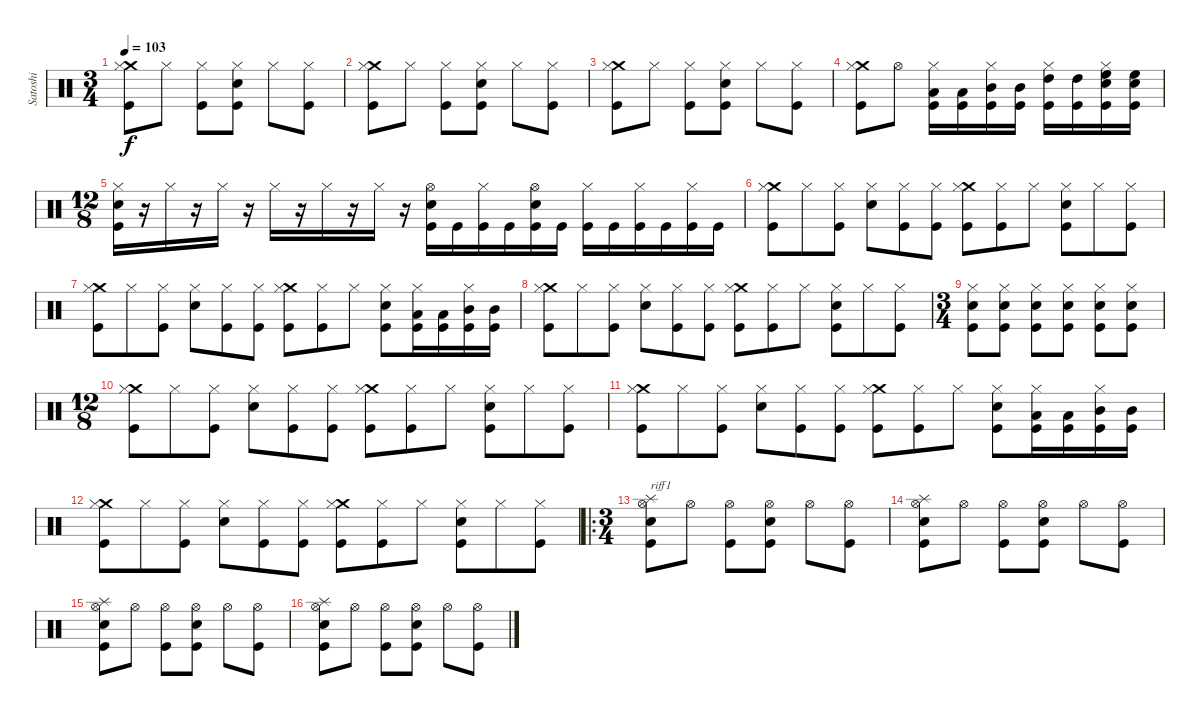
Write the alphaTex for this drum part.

\track ("Satoshi" "Satoshi") {instrument percussion}
\staff {score}
\articulation defaults
\ts (3 4)
\tempo 103
\clef neutral
\ks c
("Crash medium (hit)" "Hi-Hat (closed)" "Kick (hit)").8{dy f} "Hi-Hat (closed)".8 ("Hi-Hat (closed)" "Kick (hit)").8 ("Hi-Hat (closed)" "Electric Snare (hit)" "Kick (hit)").8 "Hi-Hat (closed)".8 ("Hi-Hat (closed)" "Kick (hit)").8 |
("Crash medium (hit)" "Hi-Hat (closed)" "Kick (hit)").8 "Hi-Hat (closed)".8 ("Hi-Hat (closed)" "Kick (hit)").8 ("Hi-Hat (closed)" "Electric Snare (hit)" "Kick (hit)").8 "Hi-Hat (closed)".8 ("Hi-Hat (closed)" "Kick (hit)").8 |
("Crash medium (hit)" "Hi-Hat (closed)" "Kick (hit)").8 "Hi-Hat (closed)".8 ("Hi-Hat (closed)" "Kick (hit)").8 ("Hi-Hat (closed)" "Electric Snare (hit)" "Kick (hit)").8 "Hi-Hat (closed)".8 ("Hi-Hat (closed)" "Kick (hit)").8 |
("Crash medium (hit)" "Hi-Hat (closed)" "Kick (hit)").8 "Hi-Hat (open)".8 ("Low Tom (hit)" "Hi-Hat (closed)" "Kick (hit)").16 ("Low Tom (hit)" "Kick (hit)").16 ("Mid Tom (hit)" "Hi-Hat (closed)" "Kick (hit)").16 ("Mid Tom (hit)" "Kick (hit)").16 ("High Tom (hit)" "Hi-Hat (closed)" "Kick (hit)").16 ("High Tom (hit)" "Kick (hit)").16 ("High Floor Tom (hit)" "Hi-Hat (closed)" "Electric Snare (hit)" "Kick (hit)").16 ("High Floor Tom (hit)" "Electric Snare (hit)" "Kick (hit)").16 |
\ts (12 8)
("Hi-Hat (closed)" "Electric Snare (hit)" "Kick (hit)").16 r.16 "Hi-Hat (closed)".16 r.16 "Hi-Hat (closed)".16 r.16 "Hi-Hat (closed)".16 r.16 "Hi-Hat (closed)".16 r.16 "Hi-Hat (closed)".16 r.16 ("Hi-Hat (open)" "Electric Snare (hit)" "Kick (hit)").16 "Kick (hit)".16 ("Hi-Hat (closed)" "Kick (hit)").16 "Kick (hit)".16 ("Hi-Hat (open)" "Electric Snare (hit)" "Kick (hit)").16 "Kick (hit)".16 ("Hi-Hat (closed)" "Kick (hit)").16 "Kick (hit)".16 ("Hi-Hat (closed)" "Kick (hit)").16 "Kick (hit)".16 ("Hi-Hat (closed)" "Kick (hit)").16 "Kick (hit)".16 |
("Crash medium (hit)" "Hi-Hat (closed)" "Kick (hit)").8 "Hi-Hat (closed)".8 ("Hi-Hat (closed)" "Kick (hit)").8 ("Hi-Hat (closed)" "Electric Snare (hit)").8 ("Hi-Hat (closed)" "Kick (hit)").8 ("Hi-Hat (closed)" "Kick (hit)").8 ("Crash medium (hit)" "Hi-Hat (closed)" "Kick (hit)").8 ("Hi-Hat (closed)" "Kick (hit)").8 "Hi-Hat (closed)".8 ("Hi-Hat (closed)" "Electric Snare (hit)" "Kick (hit)").8 "Hi-Hat (closed)".8 ("Hi-Hat (closed)" "Kick (hit)").8 |
("Crash medium (hit)" "Hi-Hat (closed)" "Kick (hit)").8 "Hi-Hat (closed)".8 ("Hi-Hat (closed)" "Kick (hit)").8 ("Hi-Hat (closed)" "Electric Snare (hit)").8 ("Hi-Hat (closed)" "Kick (hit)").8 ("Hi-Hat (closed)" "Kick (hit)").8 ("Crash medium (hit)" "Hi-Hat (closed)" "Kick (hit)").8 ("Hi-Hat (closed)" "Kick (hit)").8 "Hi-Hat (closed)".8 ("Hi-Hat (closed)" "Electric Snare (hit)" "Kick (hit)").8 ("Hi-Hat (closed)" "Low Tom (hit)" "Kick (hit)").16 ("Low Tom (hit)" "Kick (hit)").16 ("Hi-Hat (closed)" "Mid Tom (hit)" "Kick (hit)").16 ("Mid Tom (hit)" "Kick (hit)").16 |
("Crash medium (hit)" "Hi-Hat (closed)" "Kick (hit)").8 "Hi-Hat (closed)".8 ("Hi-Hat (closed)" "Kick (hit)").8 ("Hi-Hat (closed)" "Electric Snare (hit)").8 ("Hi-Hat (closed)" "Kick (hit)").8 ("Hi-Hat (closed)" "Kick (hit)").8 ("Crash medium (hit)" "Hi-Hat (closed)" "Kick (hit)").8 ("Hi-Hat (closed)" "Kick (hit)").8 "Hi-Hat (closed)".8 ("Hi-Hat (closed)" "Electric Snare (hit)" "Kick (hit)").8 "Hi-Hat (closed)".8 ("Hi-Hat (closed)" "Kick (hit)").8 |
\ts (3 4)
("Hi-Hat (closed)" "Electric Snare (hit)" "Kick (hit)").8 ("Hi-Hat (closed)" "Electric Snare (hit)" "Kick (hit)").8 ("Hi-Hat (closed)" "Electric Snare (hit)" "Kick (hit)").8 ("Hi-Hat (closed)" "Electric Snare (hit)" "Kick (hit)").8 ("Hi-Hat (closed)" "Electric Snare (hit)" "Kick (hit)").8 ("Hi-Hat (closed)" "Electric Snare (hit)" "Kick (hit)").8 |
\ts (12 8)
("Crash medium (hit)" "Hi-Hat (closed)" "Kick (hit)").8 "Hi-Hat (closed)".8 ("Hi-Hat (closed)" "Kick (hit)").8 ("Hi-Hat (closed)" "Electric Snare (hit)").8 ("Hi-Hat (closed)" "Kick (hit)").8 ("Hi-Hat (closed)" "Kick (hit)").8 ("Crash medium (hit)" "Hi-Hat (closed)" "Kick (hit)").8 ("Hi-Hat (closed)" "Kick (hit)").8 "Hi-Hat (closed)".8 ("Hi-Hat (closed)" "Electric Snare (hit)" "Kick (hit)").8 "Hi-Hat (closed)".8 ("Hi-Hat (closed)" "Kick (hit)").8 |
("Crash medium (hit)" "Hi-Hat (closed)" "Kick (hit)").8 "Hi-Hat (closed)".8 ("Hi-Hat (closed)" "Kick (hit)").8 ("Hi-Hat (closed)" "Electric Snare (hit)").8 ("Hi-Hat (closed)" "Kick (hit)").8 ("Hi-Hat (closed)" "Kick (hit)").8 ("Crash medium (hit)" "Hi-Hat (closed)" "Kick (hit)").8 ("Hi-Hat (closed)" "Kick (hit)").8 "Hi-Hat (closed)".8 ("Hi-Hat (closed)" "Electric Snare (hit)" "Kick (hit)").8 ("Hi-Hat (closed)" "Low Tom (hit)" "Kick (hit)").16 ("Low Tom (hit)" "Kick (hit)").16 ("Hi-Hat (closed)" "Mid Tom (hit)" "Kick (hit)").16 ("Mid Tom (hit)" "Kick (hit)").16 |
("Crash medium (hit)" "Hi-Hat (closed)" "Kick (hit)").8 "Hi-Hat (closed)".8 ("Hi-Hat (closed)" "Kick (hit)").8 ("Hi-Hat (closed)" "Electric Snare (hit)").8 ("Hi-Hat (closed)" "Kick (hit)").8 ("Hi-Hat (closed)" "Kick (hit)").8 ("Crash medium (hit)" "Hi-Hat (closed)" "Kick (hit)").8 ("Hi-Hat (closed)" "Kick (hit)").8 "Hi-Hat (closed)".8 ("Hi-Hat (closed)" "Electric Snare (hit)" "Kick (hit)").8 "Hi-Hat (closed)".8 ("Hi-Hat (closed)" "Kick (hit)").8 |
\ro
\ts (3 4)
("Splash (hit)" "Hi-Hat (open)" "Electric Snare (hit)" "Kick (hit)").8{txt "riff1"} "Hi-Hat (open)".8 ("Hi-Hat (open)" "Kick (hit)").8 ("Hi-Hat (open)" "Electric Snare (hit)" "Kick (hit)").8 "Hi-Hat (open)".8 ("Hi-Hat (open)" "Kick (hit)").8 |
("Splash (hit)" "Hi-Hat (open)" "Electric Snare (hit)" "Kick (hit)").8 "Hi-Hat (open)".8 ("Hi-Hat (open)" "Kick (hit)").8 ("Hi-Hat (open)" "Electric Snare (hit)" "Kick (hit)").8 "Hi-Hat (open)".8 ("Hi-Hat (open)" "Kick (hit)").8 |
("Splash (hit)" "Hi-Hat (open)" "Electric Snare (hit)" "Kick (hit)").8 "Hi-Hat (open)".8 ("Hi-Hat (open)" "Kick (hit)").8 ("Hi-Hat (open)" "Electric Snare (hit)" "Kick (hit)").8 "Hi-Hat (open)".8 ("Hi-Hat (open)" "Kick (hit)").8 |
("Splash (hit)" "Hi-Hat (open)" "Electric Snare (hit)" "Kick (hit)").8 "Hi-Hat (open)".8 ("Hi-Hat (open)" "Kick (hit)").8 ("Hi-Hat (open)" "Electric Snare (hit)" "Kick (hit)").8 "Hi-Hat (open)".8 ("Hi-Hat (open)" "Kick (hit)").8
